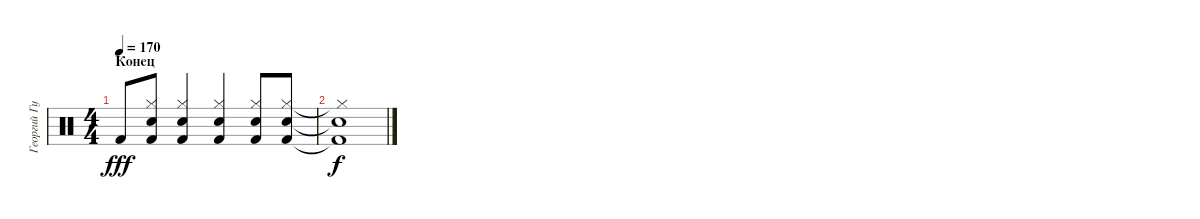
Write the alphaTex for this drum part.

\track ("Георгий Гурьянов" "Георгий Гу") {instrument percussion}
\staff {score}
\articulation defaults
\ts (4 4)
\section ("" "Конец")
\tempo 170
\clef neutral
\ks c "Kick (hit) 2".8{dy fff}
("Hi-Hat (closed)" "Electric Snare (hit)" "Kick (hit) 2").8 ("Hi-Hat (closed)" "Electric Snare (hit)" "Kick (hit) 2").4 ("Hi-Hat (closed)" "Electric Snare (hit)" "Kick (hit) 2").4 ("Hi-Hat (closed)" "Electric Snare (hit)" "Kick (hit) 2").8 ("Hi-Hat (closed)" "Electric Snare (hit)" "Kick (hit) 2").8 |
("Hi-Hat (closed)"{t} "Electric Snare (hit)"{t} "Kick (hit) 2"{t}).1{dy f}
